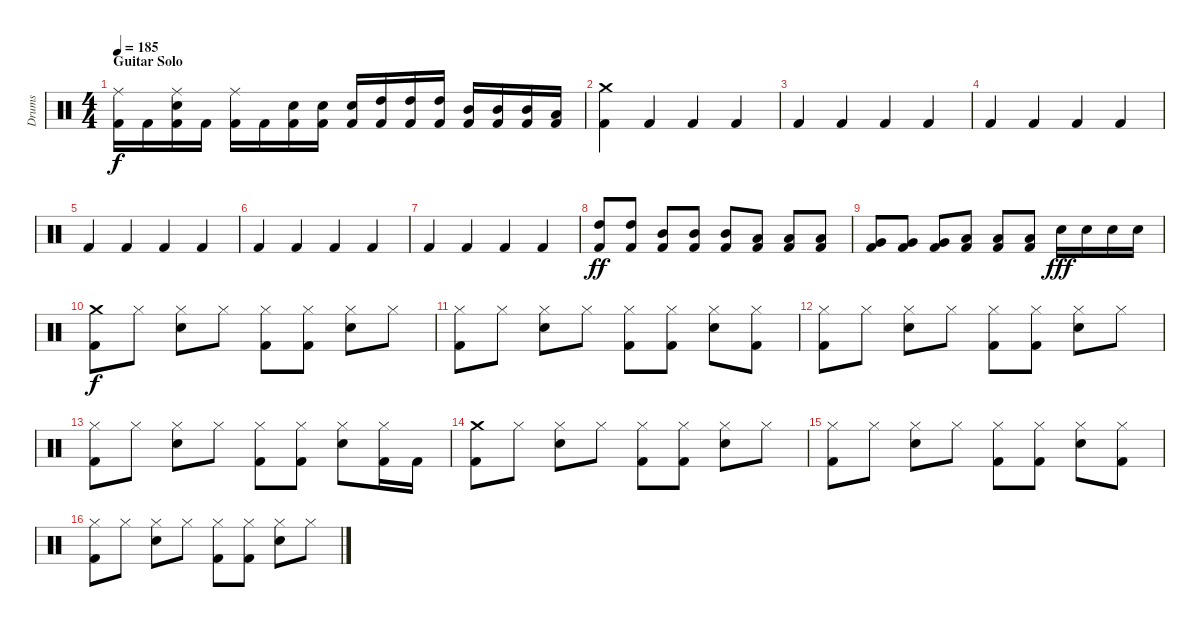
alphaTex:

\track ("Drums" "Drums") {instrument percussion}
\staff {score}
\articulation defaults
\ts (4 4)
\section ("" "Guitar Solo")
\tempo 185
\clef neutral
\ks c
("Kick (hit) 2" "Ride (middle)").16{dy f} "Kick (hit) 2".16 ("Kick (hit) 2" "Electric Snare (hit)" "Ride (middle)").16 "Kick (hit) 2".16 ("Kick (hit) 2" "Ride (middle)").16 "Kick (hit) 2".16 ("Kick (hit) 2" "Electric Snare (hit)").16 ("Kick (hit) 2" "Electric Snare (hit)").16 ("Kick (hit) 2" "Electric Snare (hit)").16 ("Kick (hit) 2" "High Tom (hit)").16 ("Kick (hit) 2" "High Tom (hit)").16 ("Kick (hit) 2" "High Tom (hit)").16 ("Kick (hit) 2" "Mid Tom (hit)").16 ("Kick (hit) 2" "Mid Tom (hit)").16 ("Kick (hit) 2" "Mid Tom (hit)").16 ("Kick (hit) 2" "Low Tom (hit)").16 |
("Kick (hit) 2" "Crash medium (hit)").4 "Kick (hit) 2".4 "Kick (hit) 2".4 "Kick (hit) 2".4 |
"Kick (hit) 2".4 "Kick (hit) 2".4 "Kick (hit) 2".4 "Kick (hit) 2".4 |
"Kick (hit) 2".4 "Kick (hit) 2".4 "Kick (hit) 2".4 "Kick (hit) 2".4 |
"Kick (hit) 2".4 "Kick (hit) 2".4 "Kick (hit) 2".4 "Kick (hit) 2".4 |
"Kick (hit) 2".4 "Kick (hit) 2".4 "Kick (hit) 2".4 "Kick (hit) 2".4 |
"Kick (hit) 2".4 "Kick (hit) 2".4 "Kick (hit) 2".4 "Kick (hit) 2".4 |
("Kick (hit) 2" "High Tom (hit)").8{dy ff} ("Kick (hit) 2" "High Tom (hit)").8 ("Kick (hit) 2" "Mid Tom (hit)").8 ("Kick (hit) 2" "Mid Tom (hit)").8 ("Kick (hit) 2" "Mid Tom (hit)").8 ("Kick (hit) 2" "Low Tom (hit)").8 ("Kick (hit) 2" "Low Tom (hit)").8 ("Kick (hit) 2" "Low Tom (hit)").8 |
("Kick (hit) 2" "Very Low Tom (hit)").8 ("Kick (hit) 2" "Very Low Tom (hit)").8 ("Kick (hit) 2" "Very Low Tom (hit)").8 ("Kick (hit) 2" "Low Floor Tom (hit)").8 ("Kick (hit) 2" "Low Floor Tom (hit)").8 ("Kick (hit) 2" "Low Floor Tom (hit)").8 "Electric Snare (hit)".16{dy fff} "Electric Snare (hit)".16 "Electric Snare (hit)".16 "Electric Snare (hit)".16 |
("Kick (hit) 2" "Crash medium (hit)").8{dy f} "Hi-Hat (closed)".8 ("Electric Snare (hit)" "Hi-Hat (closed)").8 "Hi-Hat (closed)".8 ("Kick (hit) 2" "Hi-Hat (closed)").8 ("Kick (hit) 2" "Hi-Hat (closed)").8 ("Electric Snare (hit)" "Hi-Hat (closed)").8 "Hi-Hat (closed)".8 |
("Kick (hit) 2" "Hi-Hat (closed)").8 "Hi-Hat (closed)".8 ("Electric Snare (hit)" "Hi-Hat (closed)").8 "Hi-Hat (closed)".8 ("Kick (hit) 2" "Hi-Hat (closed)").8 ("Kick (hit) 2" "Hi-Hat (closed)").8 ("Electric Snare (hit)" "Hi-Hat (closed)").8 ("Kick (hit) 2" "Hi-Hat (closed)").8 |
("Kick (hit) 2" "Hi-Hat (closed)").8 "Hi-Hat (closed)".8 ("Electric Snare (hit)" "Hi-Hat (closed)").8 "Hi-Hat (closed)".8 ("Kick (hit) 2" "Hi-Hat (closed)").8 ("Kick (hit) 2" "Hi-Hat (closed)").8 ("Electric Snare (hit)" "Hi-Hat (closed)").8 "Hi-Hat (closed)".8 |
("Kick (hit) 2" "Hi-Hat (closed)").8 "Hi-Hat (closed)".8 ("Electric Snare (hit)" "Hi-Hat (closed)").8 "Hi-Hat (closed)".8 ("Kick (hit) 2" "Hi-Hat (closed)").8 ("Kick (hit) 2" "Hi-Hat (closed)").8 ("Electric Snare (hit)" "Hi-Hat (closed)").8 ("Kick (hit) 2" "Hi-Hat (closed)").16 "Kick (hit) 2".16 |
("Kick (hit) 2" "Crash medium (hit)").8 "Hi-Hat (closed)".8 ("Electric Snare (hit)" "Hi-Hat (closed)").8 "Hi-Hat (closed)".8 ("Kick (hit) 2" "Hi-Hat (closed)").8 ("Kick (hit) 2" "Hi-Hat (closed)").8 ("Electric Snare (hit)" "Hi-Hat (closed)").8 "Hi-Hat (closed)".8 |
("Kick (hit) 2" "Hi-Hat (closed)").8 "Hi-Hat (closed)".8 ("Electric Snare (hit)" "Hi-Hat (closed)").8 "Hi-Hat (closed)".8 ("Kick (hit) 2" "Hi-Hat (closed)").8 ("Kick (hit) 2" "Hi-Hat (closed)").8 ("Electric Snare (hit)" "Hi-Hat (closed)").8 ("Kick (hit) 2" "Hi-Hat (closed)").8 |
("Kick (hit) 2" "Hi-Hat (closed)").8 "Hi-Hat (closed)".8 ("Electric Snare (hit)" "Hi-Hat (closed)").8 "Hi-Hat (closed)".8 ("Kick (hit) 2" "Hi-Hat (closed)").8 ("Kick (hit) 2" "Hi-Hat (closed)").8 ("Electric Snare (hit)" "Hi-Hat (closed)").8 "Hi-Hat (closed)".8
